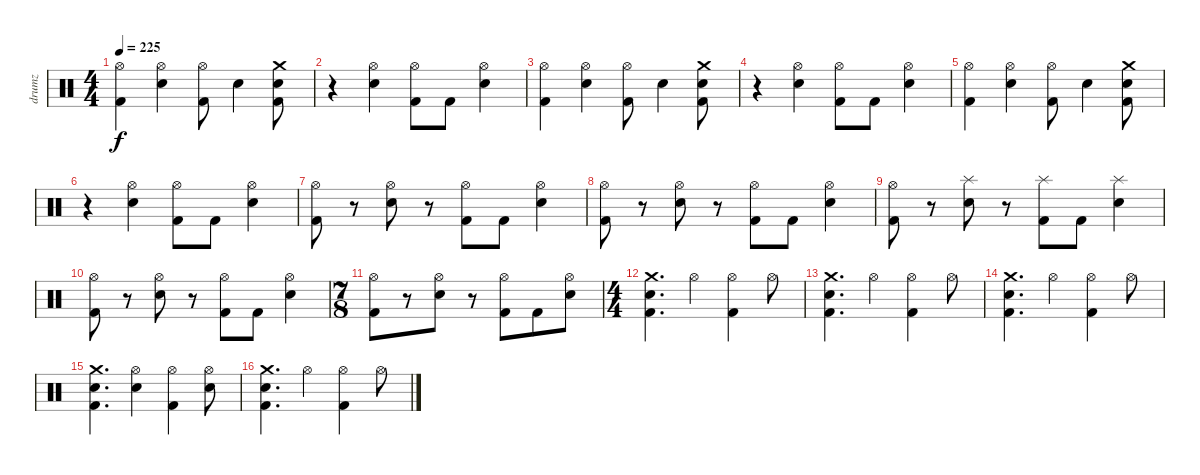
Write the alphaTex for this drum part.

\track ("drumz" "drumz") {instrument percussion}
\staff {score}
\articulation defaults
\ts (4 4)
\tempo 225
\clef neutral
\ks c
("Hi-Hat (open)" "Kick (hit) 2").4{dy f} ("Hi-Hat (open)" "Electric Snare (hit)").4 ("Hi-Hat (open)" "Kick (hit) 2").8 "Electric Snare (hit)".4 ("Crash medium (hit)" "Electric Snare (hit)" "Kick (hit) 2").8 |
r.4 ("Hi-Hat (open)" "Electric Snare (hit)").4 ("Hi-Hat (open)" "Kick (hit) 2").8 "Kick (hit) 2".8 ("Hi-Hat (open)" "Electric Snare (hit)").4 |
("Hi-Hat (open)" "Kick (hit) 2").4 ("Hi-Hat (open)" "Electric Snare (hit)").4 ("Hi-Hat (open)" "Kick (hit) 2").8 "Electric Snare (hit)".4 ("Crash medium (hit)" "Electric Snare (hit)" "Kick (hit) 2").8 |
r.4 ("Hi-Hat (open)" "Electric Snare (hit)").4 ("Hi-Hat (open)" "Kick (hit) 2").8 "Kick (hit) 2".8 ("Hi-Hat (open)" "Electric Snare (hit)").4 |
("Hi-Hat (open)" "Kick (hit) 2").4 ("Hi-Hat (open)" "Electric Snare (hit)").4 ("Hi-Hat (open)" "Kick (hit) 2").8 "Electric Snare (hit)".4 ("Crash medium (hit)" "Electric Snare (hit)" "Kick (hit) 2").8 |
r.4 ("Hi-Hat (open)" "Electric Snare (hit)").4 ("Hi-Hat (open)" "Kick (hit) 2").8 "Kick (hit) 2".8 ("Hi-Hat (open)" "Electric Snare (hit)").4 |
("Hi-Hat (open)" "Kick (hit) 2").8 r.8 ("Hi-Hat (open)" "Electric Snare (hit)").8 r.8 ("Hi-Hat (open)" "Kick (hit) 2").8 "Kick (hit) 2".8 ("Hi-Hat (open)" "Electric Snare (hit)").4 |
("Hi-Hat (open)" "Kick (hit) 2").8 r.8 ("Hi-Hat (open)" "Electric Snare (hit)").8 r.8 ("Hi-Hat (open)" "Kick (hit) 2").8 "Kick (hit) 2".8 ("Hi-Hat (open)" "Electric Snare (hit)").4 |
("Hi-Hat (open)" "Kick (hit) 2").8 r.8 ("Splash (hit)" "Electric Snare (hit)").8 r.8 ("Splash (hit)" "Kick (hit) 2").8 "Kick (hit) 2".8 ("Splash (hit)" "Electric Snare (hit)").4 |
("Hi-Hat (open)" "Kick (hit) 2").8 r.8 ("Hi-Hat (open)" "Electric Snare (hit)").8 r.8 ("Hi-Hat (open)" "Kick (hit) 2").8 "Kick (hit) 2".8 ("Hi-Hat (open)" "Electric Snare (hit)").4 |
\ts (7 8)
("Hi-Hat (open)" "Kick (hit) 2").8 r.8 ("Hi-Hat (open)" "Electric Snare (hit)").8 r.8 ("Hi-Hat (open)" "Kick (hit) 2").8 "Kick (hit) 2".8 ("Hi-Hat (open)" "Electric Snare (hit)").8 |
\ts (4 4)
("Crash medium (hit)" "Electric Snare (hit)" "Kick (hit) 2").4{d} "Hi-Hat (open)".4 ("Hi-Hat (open)" "Kick (hit) 2").4 "Hi-Hat (open)".8 |
("Crash medium (hit)" "Electric Snare (hit)" "Kick (hit) 2").4{d} "Hi-Hat (open)".4 ("Hi-Hat (open)" "Kick (hit) 2").4 "Hi-Hat (open)".8 |
("Crash medium (hit)" "Electric Snare (hit)" "Kick (hit) 2").4{d} "Hi-Hat (open)".4 ("Hi-Hat (open)" "Kick (hit) 2").4 "Hi-Hat (open)".8 |
("Crash medium (hit)" "Electric Snare (hit)" "Kick (hit) 2").4{d} ("Hi-Hat (open)" "Electric Snare (hit)").4 ("Hi-Hat (open)" "Kick (hit) 2").4 ("Hi-Hat (open)" "Electric Snare (hit)").8 |
("Crash medium (hit)" "Electric Snare (hit)" "Kick (hit) 2").4{d} "Hi-Hat (open)".4 ("Hi-Hat (open)" "Kick (hit) 2").4 "Hi-Hat (open)".8
